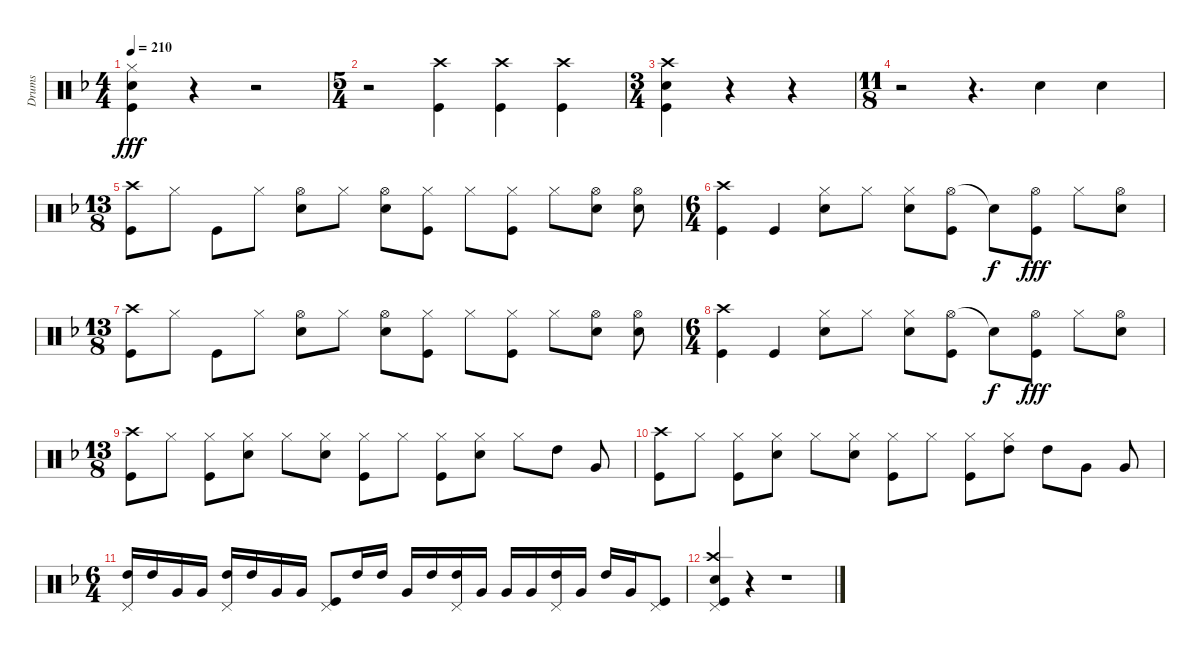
\track ("Drums" "Drums") {instrument percussion}
\staff {score}
\articulation defaults
\ts (4 4)
\tempo 210
\clef neutral
\ks f
("Hi-Hat (closed)" "Snare (hit) 2" "Kick (hit)").4{dy fff} r.4 r.2 |
\ts (5 4)
r.2 ("Crash high (hit)" "Kick (hit)").4 ("Crash high (hit)" "Kick (hit)").4 ("Crash high (hit)" "Kick (hit)").4 |
\ts (3 4)
("Crash high (hit)" "Snare (hit) 2" "Kick (hit)").4 r.4 r.4 |
\ts (11 8)
r.2 r.4{d} "Snare (hit) 2".4 "Snare (hit) 2".4 |
\ts (13 8)
("Crash high (hit)" "Kick (hit)").8 "Hi-Hat (closed)".8 "Kick (hit)".8 "Hi-Hat (closed)".8 ("Hi-Hat (open)" "Snare (hit) 2").8 "Hi-Hat (closed)".8 ("Hi-Hat (open)" "Snare (hit) 2").8 ("Hi-Hat (closed)" "Kick (hit)").8 "Hi-Hat (closed)".8 ("Hi-Hat (closed)" "Kick (hit)").8 "Hi-Hat (closed)".8 ("Hi-Hat (open)" "Snare (hit) 2").8 ("Hi-Hat (open)" "Snare (hit) 2").8 |
\ts (6 4)
("Crash high (hit)" "Kick (hit)").4 "Kick (hit)".4 ("Hi-Hat (closed)" "Snare (hit) 2").8 "Hi-Hat (closed)".8 ("Hi-Hat (closed)" "Snare (hit) 2").8 ("Hi-Hat (open)" "Kick (hit)").8 "Snare (hit)"{t}.8{dy f} ("Hi-Hat (open)" "Kick (hit)").8{dy fff} "Hi-Hat (closed)".8 ("Hi-Hat (open)" "Snare (hit) 2").8 |
\ts (13 8)
("Crash high (hit)" "Kick (hit)").8 "Hi-Hat (closed)".8 "Kick (hit)".8 "Hi-Hat (closed)".8 ("Hi-Hat (open)" "Snare (hit) 2").8 "Hi-Hat (closed)".8 ("Hi-Hat (open)" "Snare (hit) 2").8 ("Hi-Hat (closed)" "Kick (hit)").8 "Hi-Hat (closed)".8 ("Hi-Hat (closed)" "Kick (hit)").8 "Hi-Hat (closed)".8 ("Hi-Hat (open)" "Snare (hit) 2").8 ("Hi-Hat (open)" "Snare (hit) 2").8 |
\ts (6 4)
("Crash high (hit)" "Kick (hit)").4 "Kick (hit)".4 ("Hi-Hat (closed)" "Snare (hit) 2").8 "Hi-Hat (closed)".8 ("Hi-Hat (closed)" "Snare (hit) 2").8 ("Hi-Hat (open)" "Kick (hit)").8 "Snare (hit)"{t}.8{dy f} ("Hi-Hat (open)" "Kick (hit)").8{dy fff} "Hi-Hat (closed)".8 ("Hi-Hat (open)" "Snare (hit) 2").8 |
\ts (13 8)
("Crash high (hit)" "Kick (hit)").8 "Hi-Hat (closed)".8 ("Hi-Hat (closed)" "Kick (hit)").8 ("Hi-Hat (closed)" "Snare (hit) 2").8 "Hi-Hat (closed)".8 ("Hi-Hat (closed)" "Snare (hit) 2").8 ("Hi-Hat (closed)" "Kick (hit)").8 "Hi-Hat (closed)".8 ("Hi-Hat (closed)" "Kick (hit)").8 ("Hi-Hat (closed)" "Snare (hit) 2").8 "Hi-Hat (closed)".8 "High Tom (hit)".8 "Very Low Tom (hit)".8 |
("Crash high (hit)" "Kick (hit)").8 "Hi-Hat (closed)".8 ("Hi-Hat (closed)" "Kick (hit)").8 ("Hi-Hat (closed)" "Snare (hit) 2").8 "Hi-Hat (closed)".8 ("Hi-Hat (closed)" "Snare (hit) 2").8 ("Hi-Hat (closed)" "Kick (hit)").8 "Hi-Hat (closed)".8 ("Hi-Hat (closed)" "Kick (hit)").8 ("Hi-Hat (closed)" "High Tom (hit)").8 "High Tom (hit)".8 "Very Low Tom (hit)".8 "Very Low Tom (hit)".8 |
\ts (6 4)
("Pedal Hi-Hat (hit)" "High Tom (hit)").16 "High Tom (hit)".16 "Very Low Tom (hit)".16 "Very Low Tom (hit)".16 ("Pedal Hi-Hat (hit)" "High Tom (hit)").16 "High Tom (hit)".16 "Very Low Tom (hit)".16 "Very Low Tom (hit)".16 ("Pedal Hi-Hat (hit)" "Kick (hit)").8 "High Tom (hit)".16 "High Tom (hit)".16 "Very Low Tom (hit)".16 "High Tom (hit)".16 ("Pedal Hi-Hat (hit)" "High Tom (hit)").16 "Very Low Tom (hit)".16 "Very Low Tom (hit)".16 "Very Low Tom (hit)".16 ("Pedal Hi-Hat (hit)" "High Tom (hit)").16 "Very Low Tom (hit)".16 "High Tom (hit)".16 "Very Low Tom (hit)".16 ("Pedal Hi-Hat (hit)" "Kick (hit)").8 |
("Pedal Hi-Hat (hit)" "Crash high (hit)" "Snare (hit) 2" "Kick (hit)").4 r.4 r.1
